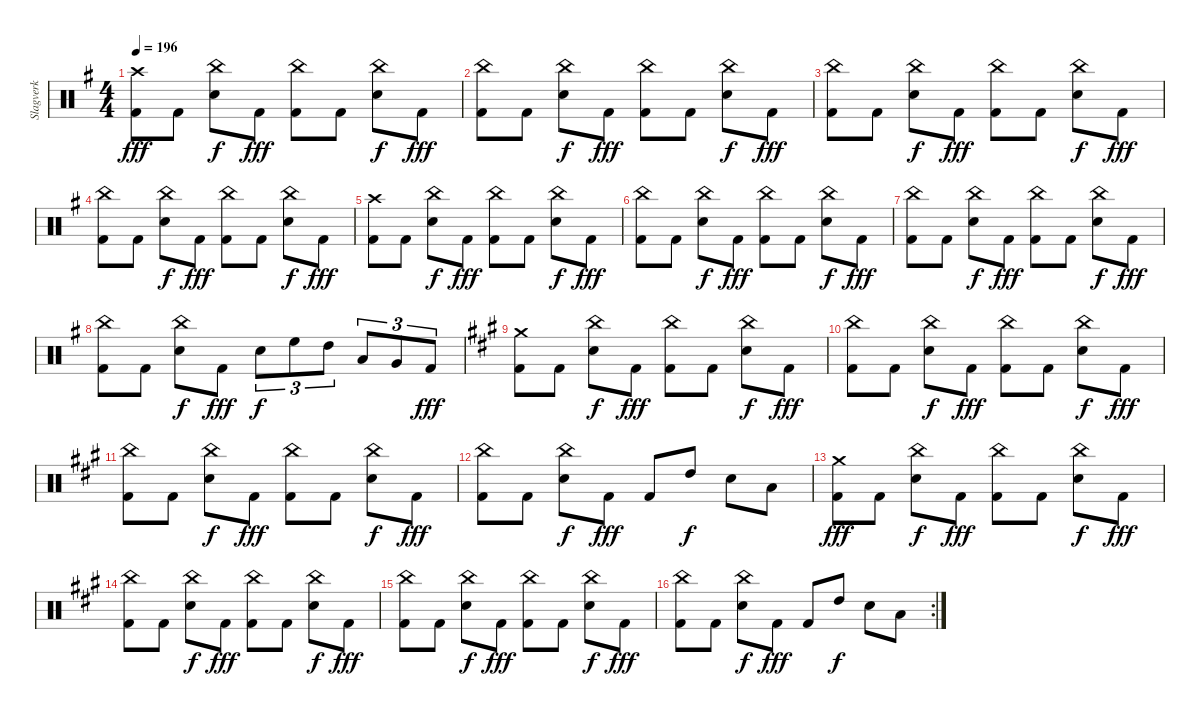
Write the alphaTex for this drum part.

\track ("Slagverk" "Slagverk") {instrument percussion}
\staff {score}
\articulation defaults
\ts (4 4)
\tempo 196
\clef neutral
\ks g
("Crash high (hit)" "Kick (hit) 2").8{dy fff} "Kick (hit) 2".8 ("China (hit)" "Snare (hit) 2").8{dy f} "Kick (hit) 2".8{dy fff} ("China (hit)" "Kick (hit) 2").8 "Kick (hit) 2".8 ("China (hit)" "Snare (hit) 2").8{dy f} "Kick (hit) 2".8{dy fff} |
("China (hit)" "Kick (hit) 2").8 "Kick (hit) 2".8 ("China (hit)" "Snare (hit) 2").8{dy f} "Kick (hit) 2".8{dy fff} ("China (hit)" "Kick (hit) 2").8 "Kick (hit) 2".8 ("China (hit)" "Snare (hit) 2").8{dy f} "Kick (hit) 2".8{dy fff} |
("China (hit)" "Kick (hit) 2").8 "Kick (hit) 2".8 ("China (hit)" "Snare (hit) 2").8{dy f} "Kick (hit) 2".8{dy fff} ("China (hit)" "Kick (hit) 2").8 "Kick (hit) 2".8 ("China (hit)" "Snare (hit) 2").8{dy f} "Kick (hit) 2".8{dy fff} |
("China (hit)" "Kick (hit) 2").8 "Kick (hit) 2".8 ("China (hit)" "Snare (hit) 2").8{dy f} "Kick (hit) 2".8{dy fff} ("China (hit)" "Kick (hit) 2").8 "Kick (hit) 2".8 ("China (hit)" "Snare (hit) 2").8{dy f} "Kick (hit) 2".8{dy fff} |
("Crash high (hit)" "Kick (hit) 2").8 "Kick (hit) 2".8 ("China (hit)" "Snare (hit) 2").8{dy f} "Kick (hit) 2".8{dy fff} ("China (hit)" "Kick (hit) 2").8 "Kick (hit) 2".8 ("China (hit)" "Snare (hit) 2").8{dy f} "Kick (hit) 2".8{dy fff} |
("China (hit)" "Kick (hit) 2").8 "Kick (hit) 2".8 ("China (hit)" "Snare (hit) 2").8{dy f} "Kick (hit) 2".8{dy fff} ("China (hit)" "Kick (hit) 2").8 "Kick (hit) 2".8 ("China (hit)" "Snare (hit) 2").8{dy f} "Kick (hit) 2".8{dy fff} |
("China (hit)" "Kick (hit) 2").8 "Kick (hit) 2".8 ("China (hit)" "Snare (hit) 2").8{dy f} "Kick (hit) 2".8{dy fff} ("China (hit)" "Kick (hit) 2").8 "Kick (hit) 2".8 ("China (hit)" "Snare (hit) 2").8{dy f} "Kick (hit) 2".8{dy fff} |
("China (hit)" "Kick (hit) 2").8 "Kick (hit) 2".8 ("China (hit)" "Snare (hit) 2").8{dy f} "Kick (hit) 2".8{dy fff} "Snare (hit) 2".8{tu (3 2) dy f} "High Floor Tom (hit)".8{tu (3 2)} "High Tom (hit)".8{tu (3 2)} "Low Tom (hit)".8{tu (3 2)} "Very Low Tom (hit)".8{tu (3 2)} "Kick (hit) 2".8{tu (3 2) dy fff} |
\ks a
("Crash medium (hit)" "Kick (hit) 2").8 "Kick (hit) 2".8 ("China (hit)" "Snare (hit) 2").8{dy f} "Kick (hit) 2".8{dy fff} ("China (hit)" "Kick (hit) 2").8 "Kick (hit) 2".8 ("China (hit)" "Snare (hit) 2").8{dy f} "Kick (hit) 2".8{dy fff} |
("China (hit)" "Kick (hit) 2").8 "Kick (hit) 2".8 ("China (hit)" "Snare (hit) 2").8{dy f} "Kick (hit) 2".8{dy fff} ("China (hit)" "Kick (hit) 2").8 "Kick (hit) 2".8 ("China (hit)" "Snare (hit) 2").8{dy f} "Kick (hit) 2".8{dy fff} |
("China (hit)" "Kick (hit) 2").8 "Kick (hit) 2".8 ("China (hit)" "Snare (hit) 2").8{dy f} "Kick (hit) 2".8{dy fff} ("China (hit)" "Kick (hit) 2").8 "Kick (hit) 2".8 ("China (hit)" "Snare (hit) 2").8{dy f} "Kick (hit) 2".8{dy fff} |
("China (hit)" "Kick (hit) 2").8 "Kick (hit) 2".8 ("China (hit)" "Snare (hit) 2").8{dy f} "Kick (hit) 2".8{dy fff} "Kick (hit) 2".8 "High Tom (hit)".8{dy f} "Snare (hit) 2".8 "Low Tom (hit)".8 |
("Crash medium (hit)" "Kick (hit) 2").8{dy fff} "Kick (hit) 2".8 ("China (hit)" "Snare (hit) 2").8{dy f} "Kick (hit) 2".8{dy fff} ("China (hit)" "Kick (hit) 2").8 "Kick (hit) 2".8 ("China (hit)" "Snare (hit) 2").8{dy f} "Kick (hit) 2".8{dy fff} |
("China (hit)" "Kick (hit) 2").8 "Kick (hit) 2".8 ("China (hit)" "Snare (hit) 2").8{dy f} "Kick (hit) 2".8{dy fff} ("China (hit)" "Kick (hit) 2").8 "Kick (hit) 2".8 ("China (hit)" "Snare (hit) 2").8{dy f} "Kick (hit) 2".8{dy fff} |
("China (hit)" "Kick (hit) 2").8 "Kick (hit) 2".8 ("China (hit)" "Snare (hit) 2").8{dy f} "Kick (hit) 2".8{dy fff} ("China (hit)" "Kick (hit) 2").8 "Kick (hit) 2".8 ("China (hit)" "Snare (hit) 2").8{dy f} "Kick (hit) 2".8{dy fff} |
\rc 2
("China (hit)" "Kick (hit) 2").8 "Kick (hit) 2".8 ("China (hit)" "Snare (hit) 2").8{dy f} "Kick (hit) 2".8{dy fff} "Kick (hit) 2".8 "High Tom (hit)".8{dy f} "Snare (hit) 2".8 "Low Tom (hit)".8
